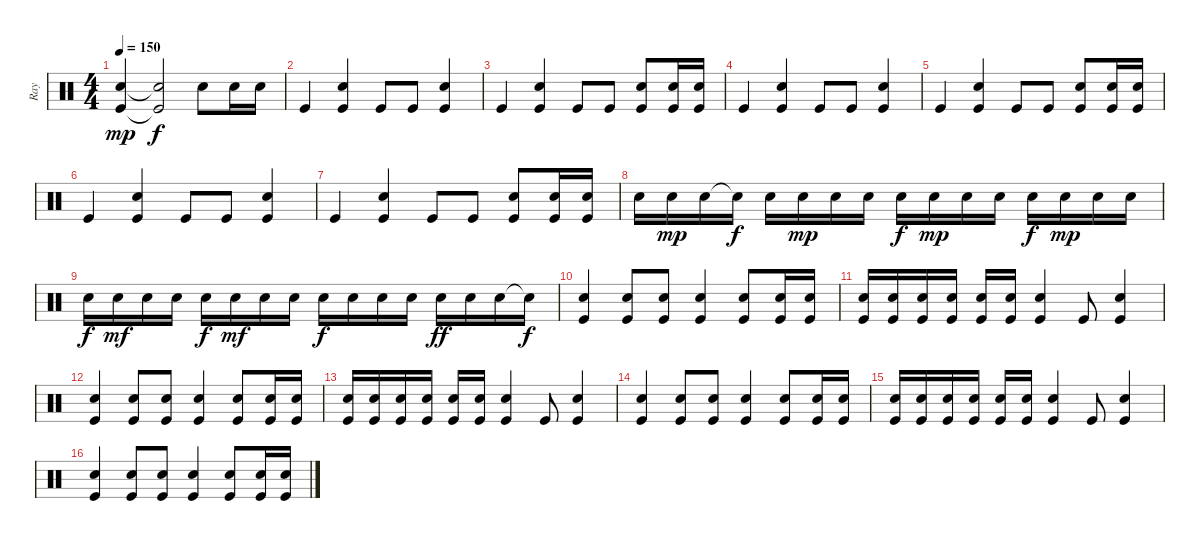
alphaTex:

\track ("Ray" "Ray") {instrument percussion}
\staff {score}
\articulation defaults
\ts (4 4)
\tempo 150
\clef neutral
\ks c
("Kick (hit)" "Electric Snare (hit)").4{dy mp} ("Kick (hit)"{t} "Electric Snare (hit)"{t}).2{dy f} "Electric Snare (hit)".8 "Electric Snare (hit)".16 "Electric Snare (hit)".16 |
"Kick (hit)".4 ("Kick (hit)" "Electric Snare (hit)").4 "Kick (hit)".8 "Kick (hit)".8 ("Kick (hit)" "Electric Snare (hit)").4 |
"Kick (hit)".4 ("Kick (hit)" "Electric Snare (hit)").4 "Kick (hit)".8 "Kick (hit)".8 ("Kick (hit)" "Electric Snare (hit)").8 ("Kick (hit)" "Electric Snare (hit)").16 ("Kick (hit)" "Electric Snare (hit)").16 |
"Kick (hit)".4 ("Kick (hit)" "Electric Snare (hit)").4 "Kick (hit)".8 "Kick (hit)".8 ("Kick (hit)" "Electric Snare (hit)").4 |
"Kick (hit)".4 ("Kick (hit)" "Electric Snare (hit)").4 "Kick (hit)".8 "Kick (hit)".8 ("Kick (hit)" "Electric Snare (hit)").8 ("Kick (hit)" "Electric Snare (hit)").16 ("Kick (hit)" "Electric Snare (hit)").16 |
"Kick (hit)".4 ("Kick (hit)" "Electric Snare (hit)").4 "Kick (hit)".8 "Kick (hit)".8 ("Kick (hit)" "Electric Snare (hit)").4 |
"Kick (hit)".4 ("Kick (hit)" "Electric Snare (hit)").4 "Kick (hit)".8 "Kick (hit)".8 ("Kick (hit)" "Electric Snare (hit)").8 ("Kick (hit)" "Electric Snare (hit)").16 ("Kick (hit)" "Electric Snare (hit)").16 |
"Electric Snare (hit)".16 "Electric Snare (hit)".16{dy mp} "Electric Snare (hit)".16 "Electric Snare (hit)"{t}.16{dy f} "Electric Snare (hit)".16 "Electric Snare (hit)".16{dy mp} "Electric Snare (hit)".16 "Electric Snare (hit)".16 "Electric Snare (hit)".16{dy f} "Electric Snare (hit)".16{dy mp} "Electric Snare (hit)".16 "Electric Snare (hit)".16 "Electric Snare (hit)".16{dy f} "Electric Snare (hit)".16{dy mp} "Electric Snare (hit)".16 "Electric Snare (hit)".16 |
"Electric Snare (hit)".16{dy f} "Electric Snare (hit)".16{dy mf} "Electric Snare (hit)".16 "Electric Snare (hit)".16 "Electric Snare (hit)".16{dy f} "Electric Snare (hit)".16{dy mf} "Electric Snare (hit)".16 "Electric Snare (hit)".16 "Electric Snare (hit)".16{dy f} "Electric Snare (hit)".16 "Electric Snare (hit)".16 "Electric Snare (hit)".16 "Electric Snare (hit)".16{dy ff} "Electric Snare (hit)".16 "Electric Snare (hit)".16 "Electric Snare (hit)"{t}.16{dy f} |
("Kick (hit)" "Electric Snare (hit)").4 ("Kick (hit)" "Electric Snare (hit)").8 ("Kick (hit)" "Electric Snare (hit)").8 ("Kick (hit)" "Electric Snare (hit)").4 ("Kick (hit)" "Electric Snare (hit)").8 ("Kick (hit)" "Electric Snare (hit)").16 ("Kick (hit)" "Electric Snare (hit)").16 |
("Kick (hit)" "Electric Snare (hit)").16 ("Kick (hit)" "Electric Snare (hit)").16 ("Kick (hit)" "Electric Snare (hit)").16 ("Kick (hit)" "Electric Snare (hit)").16 ("Kick (hit)" "Electric Snare (hit)").16 ("Kick (hit)" "Electric Snare (hit)").16 ("Kick (hit)" "Electric Snare (hit)").4 "Kick (hit)".8 ("Kick (hit)" "Electric Snare (hit)").4 |
("Kick (hit)" "Electric Snare (hit)").4 ("Kick (hit)" "Electric Snare (hit)").8 ("Kick (hit)" "Electric Snare (hit)").8 ("Kick (hit)" "Electric Snare (hit)").4 ("Kick (hit)" "Electric Snare (hit)").8 ("Kick (hit)" "Electric Snare (hit)").16 ("Kick (hit)" "Electric Snare (hit)").16 |
("Kick (hit)" "Electric Snare (hit)").16 ("Kick (hit)" "Electric Snare (hit)").16 ("Kick (hit)" "Electric Snare (hit)").16 ("Kick (hit)" "Electric Snare (hit)").16 ("Kick (hit)" "Electric Snare (hit)").16 ("Kick (hit)" "Electric Snare (hit)").16 ("Kick (hit)" "Electric Snare (hit)").4 "Kick (hit)".8 ("Kick (hit)" "Electric Snare (hit)").4 |
("Kick (hit)" "Electric Snare (hit)").4 ("Kick (hit)" "Electric Snare (hit)").8 ("Kick (hit)" "Electric Snare (hit)").8 ("Kick (hit)" "Electric Snare (hit)").4 ("Kick (hit)" "Electric Snare (hit)").8 ("Kick (hit)" "Electric Snare (hit)").16 ("Kick (hit)" "Electric Snare (hit)").16 |
("Kick (hit)" "Electric Snare (hit)").16 ("Kick (hit)" "Electric Snare (hit)").16 ("Kick (hit)" "Electric Snare (hit)").16 ("Kick (hit)" "Electric Snare (hit)").16 ("Kick (hit)" "Electric Snare (hit)").16 ("Kick (hit)" "Electric Snare (hit)").16 ("Kick (hit)" "Electric Snare (hit)").4 "Kick (hit)".8 ("Kick (hit)" "Electric Snare (hit)").4 |
("Kick (hit)" "Electric Snare (hit)").4 ("Kick (hit)" "Electric Snare (hit)").8 ("Kick (hit)" "Electric Snare (hit)").8 ("Kick (hit)" "Electric Snare (hit)").4 ("Kick (hit)" "Electric Snare (hit)").8 ("Kick (hit)" "Electric Snare (hit)").16 ("Kick (hit)" "Electric Snare (hit)").16
